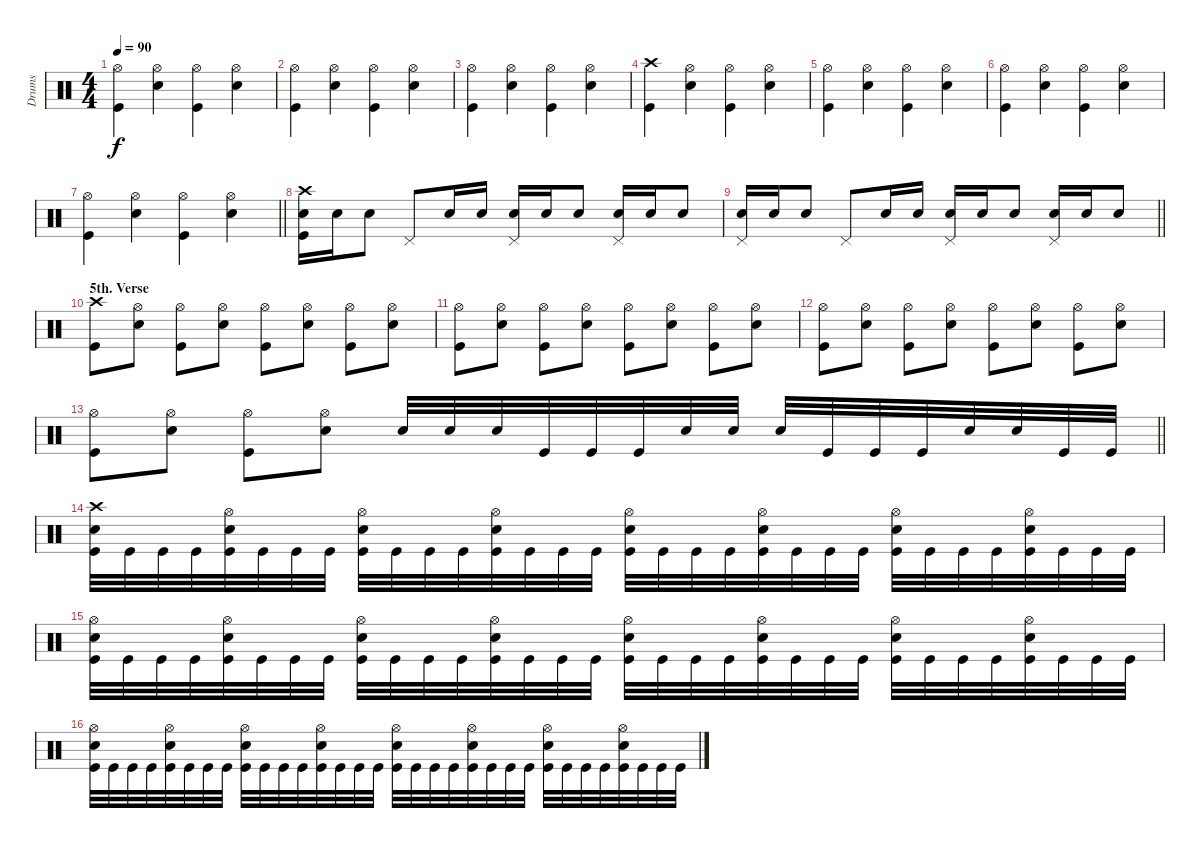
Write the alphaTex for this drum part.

\track ("Drums" "Drums") {instrument percussion}
\staff {score}
\articulation defaults
\ts (4 4)
\tempo 90
\clef neutral
\ks c
("Hi-Hat (open)" "Kick (hit)").4{dy f} ("Hi-Hat (open)" "Electric Snare (hit)").4 ("Hi-Hat (open)" "Kick (hit)").4 ("Hi-Hat (open)" "Electric Snare (hit)").4 |
("Hi-Hat (open)" "Kick (hit)").4 ("Hi-Hat (open)" "Electric Snare (hit)").4 ("Hi-Hat (open)" "Kick (hit)").4 ("Hi-Hat (open)" "Electric Snare (hit)").4 |
("Hi-Hat (open)" "Kick (hit)").4 ("Hi-Hat (open)" "Electric Snare (hit)").4 ("Hi-Hat (open)" "Kick (hit)").4 ("Hi-Hat (open)" "Electric Snare (hit)").4 |
("Crash high (hit)" "Kick (hit)").4 ("Hi-Hat (open)" "Electric Snare (hit)").4 ("Hi-Hat (open)" "Kick (hit)").4 ("Hi-Hat (open)" "Electric Snare (hit)").4 |
("Hi-Hat (open)" "Kick (hit)").4 ("Hi-Hat (open)" "Electric Snare (hit)").4 ("Hi-Hat (open)" "Kick (hit)").4 ("Hi-Hat (open)" "Electric Snare (hit)").4 |
("Hi-Hat (open)" "Kick (hit)").4 ("Hi-Hat (open)" "Electric Snare (hit)").4 ("Hi-Hat (open)" "Kick (hit)").4 ("Hi-Hat (open)" "Electric Snare (hit)").4 |
\barLineRight lightlight
("Hi-Hat (open)" "Kick (hit)").4 ("Hi-Hat (open)" "Electric Snare (hit)").4 ("Hi-Hat (open)" "Kick (hit)").4 ("Hi-Hat (open)" "Electric Snare (hit)").4 |
("Crash high (hit)" "Electric Snare (hit)" "Kick (hit)").16 "Electric Snare (hit)".16 "Electric Snare (hit)".8 "Pedal Hi-Hat (hit)".8 "Electric Snare (hit)".16 "Electric Snare (hit)".16 ("Electric Snare (hit)" "Pedal Hi-Hat (hit)").16 "Electric Snare (hit)".16 "Electric Snare (hit)".8 ("Electric Snare (hit)" "Pedal Hi-Hat (hit)").16 "Electric Snare (hit)".16 "Electric Snare (hit)".8 |
\barLineRight lightlight
("Electric Snare (hit)" "Pedal Hi-Hat (hit)").16 "Electric Snare (hit)".16 "Electric Snare (hit)".8 "Pedal Hi-Hat (hit)".8 "Electric Snare (hit)".16 "Electric Snare (hit)".16 ("Electric Snare (hit)" "Pedal Hi-Hat (hit)").16 "Electric Snare (hit)".16 "Electric Snare (hit)".8 ("Electric Snare (hit)" "Pedal Hi-Hat (hit)").16 "Electric Snare (hit)".16 "Electric Snare (hit)".8 |
\section ("" "5th. Verse")
("Crash high (hit)" "Kick (hit)").8 ("Hi-Hat (open)" "Electric Snare (hit)").8 ("Hi-Hat (open)" "Kick (hit)").8 ("Hi-Hat (open)" "Electric Snare (hit)").8 ("Hi-Hat (open)" "Kick (hit)").8 ("Hi-Hat (open)" "Electric Snare (hit)").8 ("Hi-Hat (open)" "Kick (hit)").8 ("Hi-Hat (open)" "Electric Snare (hit)").8 |
("Hi-Hat (open)" "Kick (hit)").8 ("Hi-Hat (open)" "Electric Snare (hit)").8 ("Hi-Hat (open)" "Kick (hit)").8 ("Hi-Hat (open)" "Electric Snare (hit)").8 ("Hi-Hat (open)" "Kick (hit)").8 ("Hi-Hat (open)" "Electric Snare (hit)").8 ("Hi-Hat (open)" "Kick (hit)").8 ("Hi-Hat (open)" "Electric Snare (hit)").8 |
("Hi-Hat (open)" "Kick (hit)").8 ("Hi-Hat (open)" "Electric Snare (hit)").8 ("Hi-Hat (open)" "Kick (hit)").8 ("Hi-Hat (open)" "Electric Snare (hit)").8 ("Hi-Hat (open)" "Kick (hit)").8 ("Hi-Hat (open)" "Electric Snare (hit)").8 ("Hi-Hat (open)" "Kick (hit)").8 ("Hi-Hat (open)" "Electric Snare (hit)").8 |
\barLineRight lightlight
("Hi-Hat (open)" "Kick (hit)").8 ("Hi-Hat (open)" "Electric Snare (hit)").8 ("Hi-Hat (open)" "Kick (hit)").8 ("Hi-Hat (open)" "Electric Snare (hit)").8 "Electric Snare (hit)".32 "Electric Snare (hit)".32 "Electric Snare (hit)".32 "Kick (hit)".32 "Kick (hit)".32 "Kick (hit)".32 "Electric Snare (hit)".32 "Electric Snare (hit)".32 "Electric Snare (hit)".32 "Kick (hit)".32 "Kick (hit)".32 "Kick (hit)".32 "Electric Snare (hit)".32 "Electric Snare (hit)".32 "Kick (hit)".32 "Kick (hit)".32 |
("Crash high (hit)" "Electric Snare (hit)" "Kick (hit)").32 "Kick (hit)".32 "Kick (hit)".32 "Kick (hit)".32 ("Hi-Hat (open)" "Electric Snare (hit)" "Kick (hit)").32 "Kick (hit)".32 "Kick (hit)".32 "Kick (hit)".32 ("Hi-Hat (open)" "Electric Snare (hit)" "Kick (hit)").32 "Kick (hit)".32 "Kick (hit)".32 "Kick (hit)".32 ("Hi-Hat (open)" "Electric Snare (hit)" "Kick (hit)").32 "Kick (hit)".32 "Kick (hit)".32 "Kick (hit)".32 ("Hi-Hat (open)" "Electric Snare (hit)" "Kick (hit)").32 "Kick (hit)".32 "Kick (hit)".32 "Kick (hit)".32 ("Hi-Hat (open)" "Electric Snare (hit)" "Kick (hit)").32 "Kick (hit)".32 "Kick (hit)".32 "Kick (hit)".32 ("Hi-Hat (open)" "Electric Snare (hit)" "Kick (hit)").32 "Kick (hit)".32 "Kick (hit)".32 "Kick (hit)".32 ("Hi-Hat (open)" "Electric Snare (hit)" "Kick (hit)").32 "Kick (hit)".32 "Kick (hit)".32 "Kick (hit)".32 |
("Hi-Hat (open)" "Electric Snare (hit)" "Kick (hit)").32 "Kick (hit)".32 "Kick (hit)".32 "Kick (hit)".32 ("Hi-Hat (open)" "Electric Snare (hit)" "Kick (hit)").32 "Kick (hit)".32 "Kick (hit)".32 "Kick (hit)".32 ("Hi-Hat (open)" "Electric Snare (hit)" "Kick (hit)").32 "Kick (hit)".32 "Kick (hit)".32 "Kick (hit)".32 ("Hi-Hat (open)" "Electric Snare (hit)" "Kick (hit)").32 "Kick (hit)".32 "Kick (hit)".32 "Kick (hit)".32 ("Hi-Hat (open)" "Electric Snare (hit)" "Kick (hit)").32 "Kick (hit)".32 "Kick (hit)".32 "Kick (hit)".32 ("Hi-Hat (open)" "Electric Snare (hit)" "Kick (hit)").32 "Kick (hit)".32 "Kick (hit)".32 "Kick (hit)".32 ("Hi-Hat (open)" "Electric Snare (hit)" "Kick (hit)").32 "Kick (hit)".32 "Kick (hit)".32 "Kick (hit)".32 ("Hi-Hat (open)" "Electric Snare (hit)" "Kick (hit)").32 "Kick (hit)".32 "Kick (hit)".32 "Kick (hit)".32 |
("Hi-Hat (open)" "Electric Snare (hit)" "Kick (hit)").32 "Kick (hit)".32 "Kick (hit)".32 "Kick (hit)".32 ("Hi-Hat (open)" "Electric Snare (hit)" "Kick (hit)").32 "Kick (hit)".32 "Kick (hit)".32 "Kick (hit)".32 ("Hi-Hat (open)" "Electric Snare (hit)" "Kick (hit)").32 "Kick (hit)".32 "Kick (hit)".32 "Kick (hit)".32 ("Hi-Hat (open)" "Electric Snare (hit)" "Kick (hit)").32 "Kick (hit)".32 "Kick (hit)".32 "Kick (hit)".32 ("Hi-Hat (open)" "Electric Snare (hit)" "Kick (hit)").32 "Kick (hit)".32 "Kick (hit)".32 "Kick (hit)".32 ("Hi-Hat (open)" "Electric Snare (hit)" "Kick (hit)").32 "Kick (hit)".32 "Kick (hit)".32 "Kick (hit)".32 ("Hi-Hat (open)" "Electric Snare (hit)" "Kick (hit)").32 "Kick (hit)".32 "Kick (hit)".32 "Kick (hit)".32 ("Hi-Hat (open)" "Electric Snare (hit)" "Kick (hit)").32 "Kick (hit)".32 "Kick (hit)".32 "Kick (hit)".32
